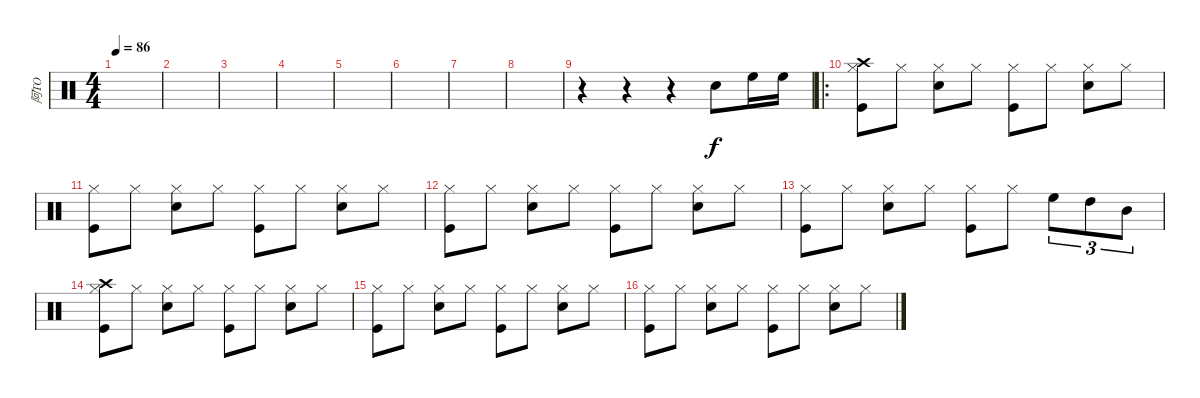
\track ("阿TO" "阿TO") {instrument percussion}
\staff {score}
\articulation defaults
\ts (4 4)
\tempo 86
\clef neutral
\ks c
|
|
|
|
|
|
|
|
r.4 r.4 r.4 "Snare (hit) 2".8 "High Floor Tom (hit)".16 "High Floor Tom (hit)".16 |
\ro
("Crash high (hit)" "Kick (hit)" "Hi-Hat (closed)").8 "Hi-Hat (closed)".8 ("Snare (hit) 2" "Hi-Hat (closed)").8 "Hi-Hat (closed)".8 ("Kick (hit)" "Hi-Hat (closed)").8 "Hi-Hat (closed)".8 ("Snare (hit) 2" "Hi-Hat (closed)").8 "Hi-Hat (closed)".8 |
("Kick (hit)" "Hi-Hat (closed)").8 "Hi-Hat (closed)".8 ("Snare (hit) 2" "Hi-Hat (closed)").8 "Hi-Hat (closed)".8 ("Kick (hit)" "Hi-Hat (closed)").8 "Hi-Hat (closed)".8 ("Snare (hit) 2" "Hi-Hat (closed)").8 "Hi-Hat (closed)".8 |
("Kick (hit)" "Hi-Hat (closed)").8 "Hi-Hat (closed)".8 ("Snare (hit) 2" "Hi-Hat (closed)").8 "Hi-Hat (closed)".8 ("Kick (hit)" "Hi-Hat (closed)").8 "Hi-Hat (closed)".8 ("Snare (hit) 2" "Hi-Hat (closed)").8 "Hi-Hat (closed)".8 |
("Kick (hit)" "Hi-Hat (closed)").8 "Hi-Hat (closed)".8 ("Snare (hit) 2" "Hi-Hat (closed)").8 "Hi-Hat (closed)".8 ("Kick (hit)" "Hi-Hat (closed)").8 "Hi-Hat (closed)".8 "High Floor Tom (hit)".8{tu (3 2)} "High Tom (hit)".8{tu (3 2)} "Mid Tom (hit)".8{tu (3 2)} |
("Crash high (hit)" "Kick (hit)" "Hi-Hat (closed)").8 "Hi-Hat (closed)".8 ("Snare (hit) 2" "Hi-Hat (closed)").8 "Hi-Hat (closed)".8 ("Kick (hit)" "Hi-Hat (closed)").8 "Hi-Hat (closed)".8 ("Snare (hit) 2" "Hi-Hat (closed)").8 "Hi-Hat (closed)".8 |
("Kick (hit)" "Hi-Hat (closed)").8 "Hi-Hat (closed)".8 ("Snare (hit) 2" "Hi-Hat (closed)").8 "Hi-Hat (closed)".8 ("Kick (hit)" "Hi-Hat (closed)").8 "Hi-Hat (closed)".8 ("Snare (hit) 2" "Hi-Hat (closed)").8 "Hi-Hat (closed)".8 |
("Kick (hit)" "Hi-Hat (closed)").8 "Hi-Hat (closed)".8 ("Snare (hit) 2" "Hi-Hat (closed)").8 "Hi-Hat (closed)".8 ("Kick (hit)" "Hi-Hat (closed)").8 "Hi-Hat (closed)".8 ("Snare (hit) 2" "Hi-Hat (closed)").8 "Hi-Hat (closed)".8
